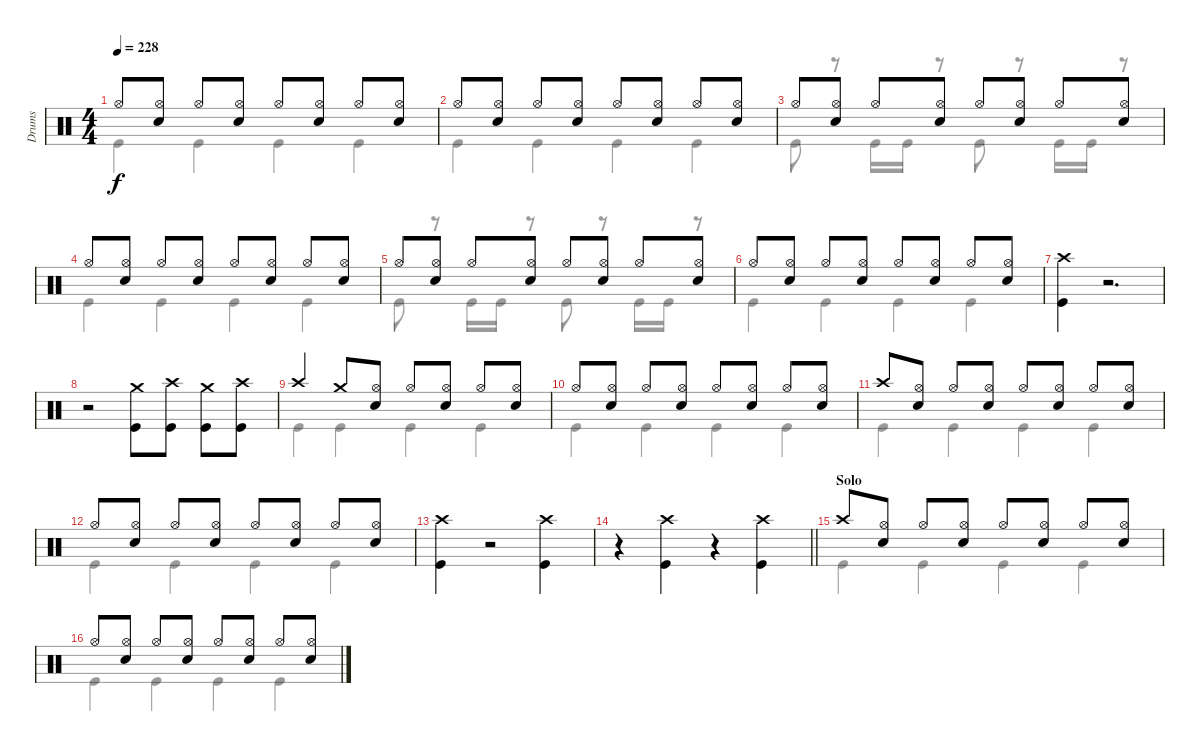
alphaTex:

\track ("Drums" "Drums") {instrument percussion}
\staff {score}
\articulation defaults
\voice
\ts (4 4)
\tempo 228
\clef neutral
\ks c "Hi-Hat (open)".8{dy f}
("Hi-Hat (open)" "Snare (hit) 2").8 "Hi-Hat (open)".8 ("Hi-Hat (open)" "Snare (hit) 2").8 "Hi-Hat (open)".8 ("Hi-Hat (open)" "Snare (hit) 2").8 "Hi-Hat (open)".8 ("Hi-Hat (open)" "Snare (hit) 2").8 |
"Hi-Hat (open)".8 ("Hi-Hat (open)" "Snare (hit) 2").8 "Hi-Hat (open)".8 ("Hi-Hat (open)" "Snare (hit) 2").8 "Hi-Hat (open)".8 ("Hi-Hat (open)" "Snare (hit) 2").8 "Hi-Hat (open)".8 ("Hi-Hat (open)" "Snare (hit) 2").8 |
"Hi-Hat (open)".8 ("Hi-Hat (open)" "Snare (hit) 2").8 "Hi-Hat (open)".8 ("Hi-Hat (open)" "Snare (hit) 2").8 "Hi-Hat (open)".8 ("Hi-Hat (open)" "Snare (hit) 2").8 "Hi-Hat (open)".8 ("Hi-Hat (open)" "Snare (hit) 2").8 |
"Hi-Hat (open)".8 ("Hi-Hat (open)" "Snare (hit) 2").8 "Hi-Hat (open)".8 ("Hi-Hat (open)" "Snare (hit) 2").8 "Hi-Hat (open)".8 ("Hi-Hat (open)" "Snare (hit) 2").8 "Hi-Hat (open)".8 ("Hi-Hat (open)" "Snare (hit) 2").8 |
"Hi-Hat (open)".8 ("Hi-Hat (open)" "Snare (hit) 2").8 "Hi-Hat (open)".8 ("Hi-Hat (open)" "Snare (hit) 2").8 "Hi-Hat (open)".8 ("Hi-Hat (open)" "Snare (hit) 2").8 "Hi-Hat (open)".8 ("Hi-Hat (open)" "Snare (hit) 2").8 |
"Hi-Hat (open)".8 ("Hi-Hat (open)" "Snare (hit) 2").8 "Hi-Hat (open)".8 ("Hi-Hat (open)" "Snare (hit) 2").8 "Hi-Hat (open)".8 ("Hi-Hat (open)" "Snare (hit) 2").8 "Hi-Hat (open)".8 ("Hi-Hat (open)" "Snare (hit) 2").8 |
("Crash high (hit)" "Kick (hit)").4 r.2{d} |
r.2 ("Crash medium (hit)" "Kick (hit)").8 ("Crash high (hit)" "Kick (hit)").8 ("Crash medium (hit)" "Kick (hit)").8 ("Crash high (hit)" "Kick (hit)").8 |
"Crash high (hit)".4 "Crash medium (hit)".8 ("Hi-Hat (open)" "Snare (hit) 2").8 "Hi-Hat (open)".8 ("Hi-Hat (open)" "Snare (hit) 2").8 "Hi-Hat (open)".8 ("Hi-Hat (open)" "Snare (hit) 2").8 |
"Hi-Hat (open)".8 ("Hi-Hat (open)" "Snare (hit) 2").8 "Hi-Hat (open)".8 ("Hi-Hat (open)" "Snare (hit) 2").8 "Hi-Hat (open)".8 ("Hi-Hat (open)" "Snare (hit) 2").8 "Hi-Hat (open)".8 ("Hi-Hat (open)" "Snare (hit) 2").8 |
"Crash high (hit)".8 ("Hi-Hat (open)" "Snare (hit) 2").8 "Hi-Hat (open)".8 ("Hi-Hat (open)" "Snare (hit) 2").8 "Hi-Hat (open)".8 ("Hi-Hat (open)" "Snare (hit) 2").8 "Hi-Hat (open)".8 ("Hi-Hat (open)" "Snare (hit) 2").8 |
"Hi-Hat (open)".8 ("Hi-Hat (open)" "Snare (hit) 2").8 "Hi-Hat (open)".8 ("Hi-Hat (open)" "Snare (hit) 2").8 "Hi-Hat (open)".8 ("Hi-Hat (open)" "Snare (hit) 2").8 "Hi-Hat (open)".8 ("Hi-Hat (open)" "Snare (hit) 2").8 |
("Crash high (hit)" "Kick (hit)").4 r.2 ("Crash high (hit)" "Kick (hit)").4 |
\barLineRight lightlight
r.4 ("Crash high (hit)" "Kick (hit)").4 r.4 ("Crash high (hit)" "Kick (hit)").4 |
\section ("" "Solo")
"Crash high (hit)".8 ("Hi-Hat (open)" "Snare (hit) 2").8 "Hi-Hat (open)".8 ("Hi-Hat (open)" "Snare (hit) 2").8 "Hi-Hat (open)".8 ("Hi-Hat (open)" "Snare (hit) 2").8 "Hi-Hat (open)".8 ("Hi-Hat (open)" "Snare (hit) 2").8 |
"Hi-Hat (open)".8 ("Hi-Hat (open)" "Snare (hit) 2").8 "Hi-Hat (open)".8 ("Hi-Hat (open)" "Snare (hit) 2").8 "Hi-Hat (open)".8 ("Hi-Hat (open)" "Snare (hit) 2").8 "Hi-Hat (open)".8 ("Hi-Hat (open)" "Snare (hit) 2").8
\voice
\clef neutral
\ottava regular
\simile none
\ks c "Kick (hit)".4{dy f} "Kick (hit)".4 "Kick (hit)".4 "Kick (hit)".4
|
"Kick (hit)".4 "Kick (hit)".4 "Kick (hit)".4 "Kick (hit)".4 |
"Kick (hit)".8 r.8 "Kick (hit)".16 "Kick (hit)".16 r.8 "Kick (hit)".8 r.8 "Kick (hit)".16 "Kick (hit)".16 r.8 |
"Kick (hit)".4 "Kick (hit)".4 "Kick (hit)".4 "Kick (hit)".4 |
"Kick (hit)".8 r.8 "Kick (hit)".16 "Kick (hit)".16 r.8 "Kick (hit)".8 r.8 "Kick (hit)".16 "Kick (hit)".16 r.8 |
"Kick (hit)".4 "Kick (hit)".4 "Kick (hit)".4 "Kick (hit)".4 |
|
|
"Kick (hit)".4 "Kick (hit)".4 "Kick (hit)".4 "Kick (hit)".4 |
"Kick (hit)".4 "Kick (hit)".4 "Kick (hit)".4 "Kick (hit)".4 |
"Kick (hit)".4 "Kick (hit)".4 "Kick (hit)".4 "Kick (hit)".4 |
"Kick (hit)".4 "Kick (hit)".4 "Kick (hit)".4 "Kick (hit)".4 |
|
\barLineRight lightlight
|
"Kick (hit)".4 "Kick (hit)".4 "Kick (hit)".4 "Kick (hit)".4 |
"Kick (hit)".4 "Kick (hit)".4 "Kick (hit)".4 "Kick (hit)".4
